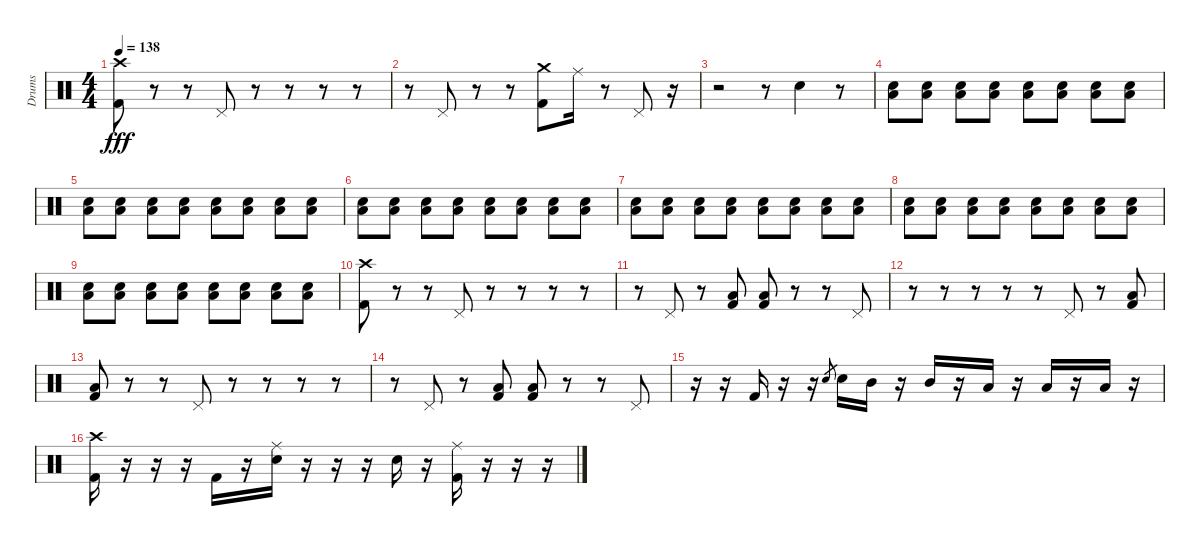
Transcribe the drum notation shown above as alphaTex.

\track ("Drums" "Drums") {instrument percussion}
\staff {score}
\articulation defaults
\ts (4 4)
\tempo 138
\clef neutral
\ks c
("Crash high (hit)" "Kick (hit) 2").8{dy fff} r.8 r.8 "Pedal Hi-Hat (hit)".8 r.8 r.8 r.8 r.8 |
r.8 "Pedal Hi-Hat (hit)".8 r.8 r.8 ("Crash medium (hit)" "Kick (hit) 2").8 "Ride (middle)".16 r.8 "Pedal Hi-Hat (hit)".8 r.16 |
r.2 r.8 "Snare (hit) 2".4 r.8 |
("Snare (hit) 2" "Low Tom (hit)").8 ("Snare (hit) 2" "Low Tom (hit)").8 ("Snare (hit) 2" "Low Tom (hit)").8 ("Snare (hit) 2" "Low Tom (hit)").8 ("Snare (hit) 2" "Low Tom (hit)").8 ("Snare (hit) 2" "Low Tom (hit)").8 ("Snare (hit) 2" "Low Tom (hit)").8 ("Snare (hit) 2" "Low Tom (hit)").8 |
("Snare (hit) 2" "Low Tom (hit)").8 ("Snare (hit) 2" "Low Tom (hit)").8 ("Snare (hit) 2" "Low Tom (hit)").8 ("Snare (hit) 2" "Low Tom (hit)").8 ("Snare (hit) 2" "Low Tom (hit)").8 ("Snare (hit) 2" "Low Tom (hit)").8 ("Snare (hit) 2" "Low Tom (hit)").8 ("Snare (hit) 2" "Low Tom (hit)").8 |
("Snare (hit) 2" "Low Tom (hit)").8 ("Snare (hit) 2" "Low Tom (hit)").8 ("Snare (hit) 2" "Low Tom (hit)").8 ("Snare (hit) 2" "Low Tom (hit)").8 ("Snare (hit) 2" "Low Tom (hit)").8 ("Snare (hit) 2" "Low Tom (hit)").8 ("Snare (hit) 2" "Low Tom (hit)").8 ("Snare (hit) 2" "Low Tom (hit)").8 |
("Snare (hit) 2" "Low Tom (hit)").8 ("Snare (hit) 2" "Low Tom (hit)").8 ("Snare (hit) 2" "Low Tom (hit)").8 ("Snare (hit) 2" "Low Tom (hit)").8 ("Snare (hit) 2" "Low Tom (hit)").8 ("Snare (hit) 2" "Low Tom (hit)").8 ("Snare (hit) 2" "Low Tom (hit)").8 ("Snare (hit) 2" "Low Tom (hit)").8 |
("Snare (hit) 2" "Low Tom (hit)").8 ("Snare (hit) 2" "Low Tom (hit)").8 ("Snare (hit) 2" "Low Tom (hit)").8 ("Snare (hit) 2" "Low Tom (hit)").8 ("Snare (hit) 2" "Low Tom (hit)").8 ("Snare (hit) 2" "Low Tom (hit)").8 ("Snare (hit) 2" "Low Tom (hit)").8 ("Snare (hit) 2" "Low Tom (hit)").8 |
("Snare (hit) 2" "Low Tom (hit)").8 ("Snare (hit) 2" "Low Tom (hit)").8 ("Snare (hit) 2" "Low Tom (hit)").8 ("Snare (hit) 2" "Low Tom (hit)").8 ("Snare (hit) 2" "Low Tom (hit)").8 ("Snare (hit) 2" "Low Tom (hit)").8 ("Snare (hit) 2" "Low Tom (hit)").8 ("Snare (hit) 2" "Low Tom (hit)").8 |
("Crash high (hit)" "Kick (hit) 2").8 r.8 r.8 "Pedal Hi-Hat (hit)".8 r.8 r.8 r.8 r.8 |
r.8 "Pedal Hi-Hat (hit)".8 r.8 ("Kick (hit) 2" "Low Tom (hit)").8 ("Kick (hit) 2" "Low Tom (hit)").8 r.8 r.8 "Pedal Hi-Hat (hit)".8 |
r.8 r.8 r.8 r.8 r.8 "Pedal Hi-Hat (hit)".8 r.8 ("Kick (hit) 2" "Low Tom (hit)").8 |
("Kick (hit) 2" "Low Tom (hit)").8 r.8 r.8 "Pedal Hi-Hat (hit)".8 r.8 r.8 r.8 r.8 |
r.8 "Pedal Hi-Hat (hit)".8 r.8 ("Kick (hit) 2" "Low Tom (hit)").8 ("Kick (hit) 2" "Low Tom (hit)").8 r.8 r.8 "Pedal Hi-Hat (hit)".8 |
r.16 r.16 "Kick (hit) 2".16 r.16 r.16 "Snare (hit) 2".8{gr} "Snare (hit) 2".16 "Mid Tom (hit)".16 r.16 "Mid Tom (hit)".16 r.16 "Low Tom (hit)".16 r.16 "Low Tom (hit)".16 r.16 "Low Tom (hit)".16 r.16 |
("Crash high (hit)" "Kick (hit) 2").16 r.16 r.16 r.16 "Kick (hit) 2".16 r.16 ("Ride (middle)" "Snare (hit) 2").16 r.16 r.16 r.16 "Snare (hit) 2".16 r.16 ("Ride (middle)" "Kick (hit) 2").16 r.16 r.16 r.16
